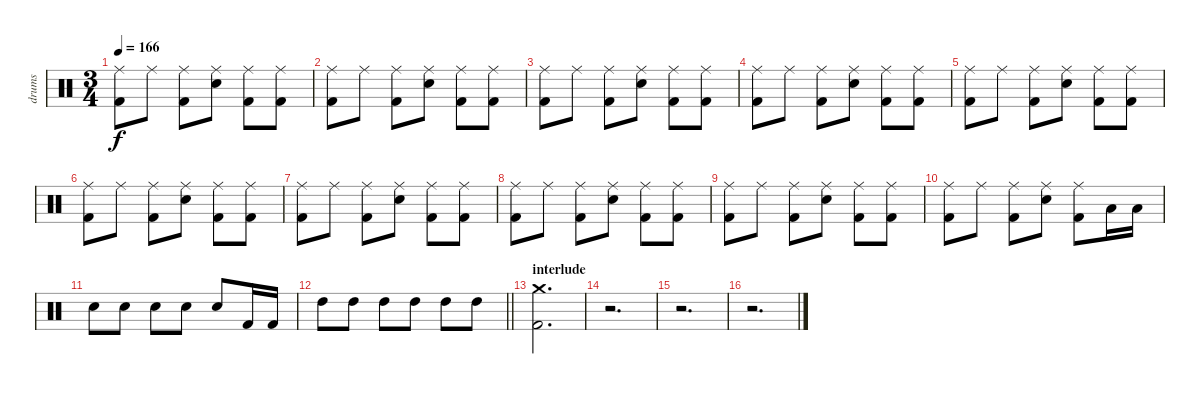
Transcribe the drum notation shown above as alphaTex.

\track ("drums" "drums") {instrument percussion}
\staff {score}
\articulation defaults
\ts (3 4)
\tempo 166
\clef neutral
\ks c
("Ride (middle)" "Kick (hit) 2").8{dy f} "Ride (middle)".8 ("Ride (middle)" "Kick (hit) 2").8 ("Ride (middle)" "Electric Snare (hit)").8 ("Ride (middle)" "Kick (hit) 2").8 ("Ride (middle)" "Kick (hit) 2").8 |
("Ride (middle)" "Kick (hit) 2").8 "Ride (middle)".8 ("Ride (middle)" "Kick (hit) 2").8 ("Ride (middle)" "Electric Snare (hit)").8 ("Ride (middle)" "Kick (hit) 2").8 ("Ride (middle)" "Kick (hit) 2").8 |
("Ride (middle)" "Kick (hit) 2").8 "Ride (middle)".8 ("Ride (middle)" "Kick (hit) 2").8 ("Ride (middle)" "Electric Snare (hit)").8 ("Ride (middle)" "Kick (hit) 2").8 ("Ride (middle)" "Kick (hit) 2").8 |
("Ride (middle)" "Kick (hit) 2").8 "Ride (middle)".8 ("Ride (middle)" "Kick (hit) 2").8 ("Ride (middle)" "Electric Snare (hit)").8 ("Ride (middle)" "Kick (hit) 2").8 ("Ride (middle)" "Kick (hit) 2").8 |
("Ride (middle)" "Kick (hit) 2").8 "Ride (middle)".8 ("Ride (middle)" "Kick (hit) 2").8 ("Ride (middle)" "Electric Snare (hit)").8 ("Ride (middle)" "Kick (hit) 2").8 ("Ride (middle)" "Kick (hit) 2").8 |
("Ride (middle)" "Kick (hit) 2").8 "Ride (middle)".8 ("Ride (middle)" "Kick (hit) 2").8 ("Ride (middle)" "Electric Snare (hit)").8 ("Ride (middle)" "Kick (hit) 2").8 ("Ride (middle)" "Kick (hit) 2").8 |
("Ride (middle)" "Kick (hit) 2").8 "Ride (middle)".8 ("Ride (middle)" "Kick (hit) 2").8 ("Ride (middle)" "Electric Snare (hit)").8 ("Ride (middle)" "Kick (hit) 2").8 ("Ride (middle)" "Kick (hit) 2").8 |
("Ride (middle)" "Kick (hit) 2").8 "Ride (middle)".8 ("Ride (middle)" "Kick (hit) 2").8 ("Ride (middle)" "Electric Snare (hit)").8 ("Ride (middle)" "Kick (hit) 2").8 ("Ride (middle)" "Kick (hit) 2").8 |
("Ride (middle)" "Kick (hit) 2").8 "Ride (middle)".8 ("Ride (middle)" "Kick (hit) 2").8 ("Ride (middle)" "Electric Snare (hit)").8 ("Ride (middle)" "Kick (hit) 2").8 ("Ride (middle)" "Kick (hit) 2").8 |
("Ride (middle)" "Kick (hit) 2").8 "Ride (middle)".8 ("Ride (middle)" "Kick (hit) 2").8 ("Ride (middle)" "Electric Snare (hit)").8 ("Ride (middle)" "Kick (hit) 2").8 "Low Tom (hit)".16 "Low Tom (hit)".16 |
"Electric Snare (hit)".8 "Electric Snare (hit)".8 "Electric Snare (hit)".8 "Electric Snare (hit)".8 "Electric Snare (hit)".8 "Kick (hit) 2".16 "Kick (hit) 2".16 |
\barLineRight lightlight "High Tom (hit)".8 "High Tom (hit)".8 "High Tom (hit)".8 "High Tom (hit)".8 "High Tom (hit)".8 "High Tom (hit)".8
|
\section ("" "interlude")
("Crash medium (hit)" "Kick (hit) 2").2{d} |
r.2{d} |
r.2{d} |
r.2{d}
